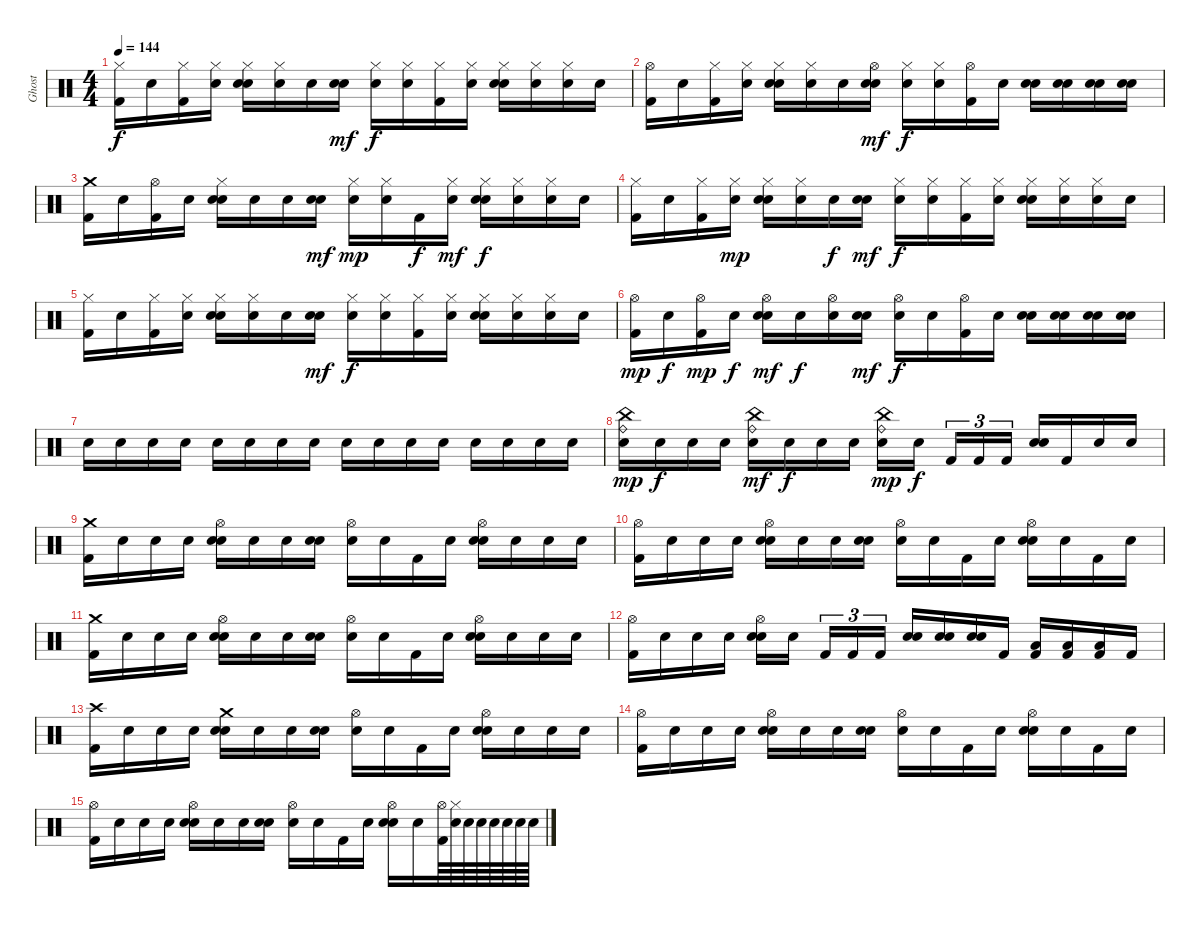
\track ("Ghost" "Ghost") {instrument percussion}
\staff {score}
\articulation defaults
\ts (4 4)
\tempo 144
\clef neutral
\ks c
("Hi-Hat (closed)" "Kick (hit) 2").16{dy f} "Snare (hit)".16 ("Hi-Hat (closed)" "Kick (hit) 2").16 ("Hi-Hat (closed)" "Snare (hit)").16 ("Hi-Hat (closed)" "Electric Snare (hit)" "Snare (hit)").16 ("Hi-Hat (closed)" "Snare (hit)").16 "Snare (hit)".16 ("Electric Snare (hit)" "Snare (hit)").16{dy mf} ("Hi-Hat (closed)" "Snare (hit)").16{dy f} ("Hi-Hat (closed)" "Snare (hit)").16 ("Hi-Hat (closed)" "Kick (hit) 2").16 ("Hi-Hat (closed)" "Snare (hit)").16 ("Hi-Hat (closed)" "Electric Snare (hit)" "Snare (hit)").16 ("Hi-Hat (closed)" "Snare (hit)").16 ("Hi-Hat (closed)" "Snare (hit)").16 "Snare (hit)".16 |
("Hi-Hat (open)" "Kick (hit) 2").16 "Snare (hit)".16 ("Hi-Hat (closed)" "Kick (hit) 2").16 ("Hi-Hat (closed)" "Snare (hit)").16 ("Hi-Hat (closed)" "Electric Snare (hit)" "Snare (hit)").16 ("Hi-Hat (closed)" "Snare (hit)").16 "Snare (hit)".16 ("Hi-Hat (open)" "Electric Snare (hit)" "Snare (hit)").16{dy mf} ("Hi-Hat (closed)" "Snare (hit)").16{dy f} ("Hi-Hat (closed)" "Snare (hit)").16 ("Hi-Hat (open)" "Kick (hit) 2").16 "Snare (hit)".16 ("Electric Snare (hit)" "Snare (hit)").16 ("Electric Snare (hit)" "Snare (hit)").16 ("Electric Snare (hit)" "Snare (hit)").16 ("Electric Snare (hit)" "Snare (hit)").16 |
("Crash medium (hit)" "Kick (hit) 2").16 "Snare (hit)".16 ("Hi-Hat (open)" "Kick (hit) 2").16 "Snare (hit)".16 ("Hi-Hat (closed)" "Electric Snare (hit)" "Snare (hit)").16 "Snare (hit)".16 "Snare (hit)".16 ("Electric Snare (hit)" "Snare (hit)").16{dy mf} ("Hi-Hat (closed)" "Snare (hit)").16{dy mp} ("Hi-Hat (closed)" "Snare (hit)").16 "Kick (hit) 2".16{dy f} ("Hi-Hat (closed)" "Snare (hit)").16{dy mf} ("Hi-Hat (closed)" "Electric Snare (hit)" "Snare (hit)").16{dy f} ("Hi-Hat (closed)" "Snare (hit)").16 ("Hi-Hat (closed)" "Snare (hit)").16 "Snare (hit)".16 |
("Hi-Hat (closed)" "Kick (hit) 2").16 "Snare (hit)".16 ("Hi-Hat (closed)" "Kick (hit) 2").16 ("Hi-Hat (closed)" "Snare (hit)").16{dy mp} ("Hi-Hat (closed)" "Electric Snare (hit)" "Snare (hit)").16 ("Hi-Hat (closed)" "Snare (hit)").16 "Snare (hit)".16{dy f} ("Electric Snare (hit)" "Snare (hit)").16{dy mf} ("Hi-Hat (closed)" "Snare (hit)").16{dy f} ("Hi-Hat (closed)" "Snare (hit)").16 ("Hi-Hat (closed)" "Kick (hit) 2").16 ("Hi-Hat (closed)" "Snare (hit)").16 ("Hi-Hat (closed)" "Electric Snare (hit)" "Snare (hit)").16 ("Hi-Hat (closed)" "Snare (hit)").16 ("Hi-Hat (closed)" "Snare (hit)").16 "Snare (hit)".16 |
("Hi-Hat (closed)" "Kick (hit) 2").16 "Snare (hit)".16 ("Hi-Hat (closed)" "Kick (hit) 2").16 ("Hi-Hat (closed)" "Snare (hit)").16 ("Hi-Hat (closed)" "Electric Snare (hit)" "Snare (hit)").16 ("Hi-Hat (closed)" "Snare (hit)").16 "Snare (hit)".16 ("Electric Snare (hit)" "Snare (hit)").16{dy mf} ("Hi-Hat (closed)" "Snare (hit)").16{dy f} ("Hi-Hat (closed)" "Snare (hit)").16 ("Hi-Hat (closed)" "Kick (hit) 2").16 ("Hi-Hat (closed)" "Snare (hit)").16 ("Hi-Hat (closed)" "Electric Snare (hit)" "Snare (hit)").16 ("Hi-Hat (closed)" "Snare (hit)").16 ("Hi-Hat (closed)" "Snare (hit)").16 "Snare (hit)".16 |
("Hi-Hat (open)" "Kick (hit) 2").16{dy mp} "Snare (hit)".16{dy f} ("Hi-Hat (open)" "Kick (hit) 2").16{dy mp} "Snare (hit)".16{dy f} ("Hi-Hat (open)" "Electric Snare (hit)" "Snare (hit)").16{dy mf} "Snare (hit)".16{dy f} ("Hi-Hat (open)" "Snare (hit)").16 ("Electric Snare (hit)" "Snare (hit)").16{dy mf} ("Hi-Hat (open)" "Snare (hit)").16{dy f} "Snare (hit)".16 ("Hi-Hat (open)" "Kick (hit) 2").16 "Snare (hit)".16 ("Electric Snare (hit)" "Snare (hit)").16 ("Electric Snare (hit)" "Snare (hit)").16 ("Electric Snare (hit)" "Snare (hit)").16 ("Electric Snare (hit)" "Snare (hit)").16 |
"Snare (hit)".16 "Snare (hit)".16 "Snare (hit)".16 "Snare (hit)".16 "Snare (hit)".16 "Snare (hit)".16 "Snare (hit)".16 "Snare (hit)".16 "Snare (hit)".16 "Snare (hit)".16 "Snare (hit)".16 "Snare (hit)".16 "Snare (hit)".16 "Snare (hit)".16 "Snare (hit)".16 "Snare (hit)".16 |
("China (hit)" "Ride (bell)" "Snare (hit)").16{dy mp} "Snare (hit)".16{dy f} "Snare (hit)".16 "Snare (hit)".16 ("China (hit)" "Ride (bell)" "Snare (hit)").16{dy mf} "Snare (hit)".16{dy f} "Snare (hit)".16 "Snare (hit)".16 ("China (hit)" "Ride (bell)" "Snare (hit)").16{dy mp} "Snare (hit)".16{dy f beam splitsecondary} "Kick (hit) 2".16{tu (3 2)} "Kick (hit) 2".16{tu (3 2)} "Kick (hit) 2".16{tu (3 2)} ("Electric Snare (hit)" "Snare (hit)").16 "Kick (hit) 2".16 "Snare (hit)".16 "Snare (hit)".16 |
("Crash medium (hit)" "Kick (hit) 2").16 "Snare (hit)".16 "Snare (hit)".16 "Snare (hit)".16 ("Hi-Hat (open)" "Electric Snare (hit)" "Snare (hit)").16 "Snare (hit)".16 "Snare (hit)".16 ("Electric Snare (hit)" "Snare (hit)").16 ("Hi-Hat (open)" "Snare (hit)").16 "Snare (hit)".16 "Kick (hit) 2".16 "Snare (hit)".16 ("Hi-Hat (open)" "Electric Snare (hit)" "Snare (hit)").16 "Snare (hit)".16 "Snare (hit)".16 "Snare (hit)".16 |
("Hi-Hat (open)" "Kick (hit) 2").16 "Snare (hit)".16 "Snare (hit)".16 "Snare (hit)".16 ("Hi-Hat (open)" "Electric Snare (hit)" "Snare (hit)").16 "Snare (hit)".16 "Snare (hit)".16 ("Electric Snare (hit)" "Snare (hit)").16 ("Hi-Hat (open)" "Snare (hit)").16 "Snare (hit)".16 "Kick (hit) 2".16 "Snare (hit)".16 ("Hi-Hat (open)" "Electric Snare (hit)" "Snare (hit)").16 "Snare (hit)".16 "Kick (hit) 2".16 "Snare (hit)".16 |
("Crash medium (hit)" "Kick (hit) 2").16 "Snare (hit)".16 "Snare (hit)".16 "Snare (hit)".16 ("Hi-Hat (open)" "Electric Snare (hit)" "Snare (hit)").16 "Snare (hit)".16 "Snare (hit)".16 ("Electric Snare (hit)" "Snare (hit)").16 ("Hi-Hat (open)" "Snare (hit)").16 "Snare (hit)".16 "Kick (hit) 2".16 "Snare (hit)".16 ("Hi-Hat (open)" "Electric Snare (hit)" "Snare (hit)").16 "Snare (hit)".16 "Snare (hit)".16 "Snare (hit)".16 |
("Hi-Hat (open)" "Kick (hit) 2").16 "Snare (hit)".16 "Snare (hit)".16 "Snare (hit)".16 ("Hi-Hat (open)" "Electric Snare (hit)" "Snare (hit)").16 "Snare (hit)".16{beam splitsecondary} "Kick (hit) 2".16{tu (3 2)} "Kick (hit) 2".16{tu (3 2)} "Kick (hit) 2".16{tu (3 2)} ("Electric Snare (hit)" "Snare (hit)").16 ("Electric Snare (hit)" "Snare (hit)").16 ("Electric Snare (hit)" "Snare (hit)").16 "Kick (hit) 2".16 ("Low Tom (hit)" "Kick (hit) 2").16 ("Low Tom (hit)" "Kick (hit) 2").16 ("Low Tom (hit)" "Kick (hit) 2").16 "Kick (hit) 2".16 |
("Crash high (hit)" "Kick (hit) 2").16 "Snare (hit)".16 "Snare (hit)".16 "Snare (hit)".16 ("Crash medium (hit)" "Electric Snare (hit)" "Snare (hit)").16 "Snare (hit)".16 "Snare (hit)".16 ("Electric Snare (hit)" "Snare (hit)").16 ("Hi-Hat (open)" "Snare (hit)").16 "Snare (hit)".16 "Kick (hit) 2".16 "Snare (hit)".16 ("Hi-Hat (open)" "Electric Snare (hit)" "Snare (hit)").16 "Snare (hit)".16 "Snare (hit)".16 "Snare (hit)".16 |
("Hi-Hat (open)" "Kick (hit) 2").16 "Snare (hit)".16 "Snare (hit)".16 "Snare (hit)".16 ("Hi-Hat (open)" "Electric Snare (hit)" "Snare (hit)").16 "Snare (hit)".16 "Snare (hit)".16 ("Electric Snare (hit)" "Snare (hit)").16 ("Hi-Hat (open)" "Snare (hit)").16 "Snare (hit)".16 "Kick (hit) 2".16 "Snare (hit)".16 ("Hi-Hat (open)" "Electric Snare (hit)" "Snare (hit)").16 "Snare (hit)".16 "Kick (hit) 2".16 "Snare (hit)".16 |
("Hi-Hat (open)" "Kick (hit) 2").16 "Snare (hit)".16 "Snare (hit)".16 "Snare (hit)".16 ("Hi-Hat (open)" "Electric Snare (hit)" "Snare (hit)").16 "Snare (hit)".16 "Snare (hit)".16 ("Electric Snare (hit)" "Snare (hit)").16 ("Hi-Hat (open)" "Snare (hit)").16 "Snare (hit)".16 "Kick (hit) 2".16 "Snare (hit)".16 ("Hi-Hat (open)" "Electric Snare (hit)" "Snare (hit)").16 "Snare (hit)".16 ("Hi-Hat (open)" "Kick (hit) 2").64 ("Hi-Hat (closed)" "Snare (hit)").64 "Snare (hit)".64 "Snare (hit)".64 "Snare (hit)".64 "Snare (hit)".64 "Snare (hit)".64 "Snare (hit)".64
